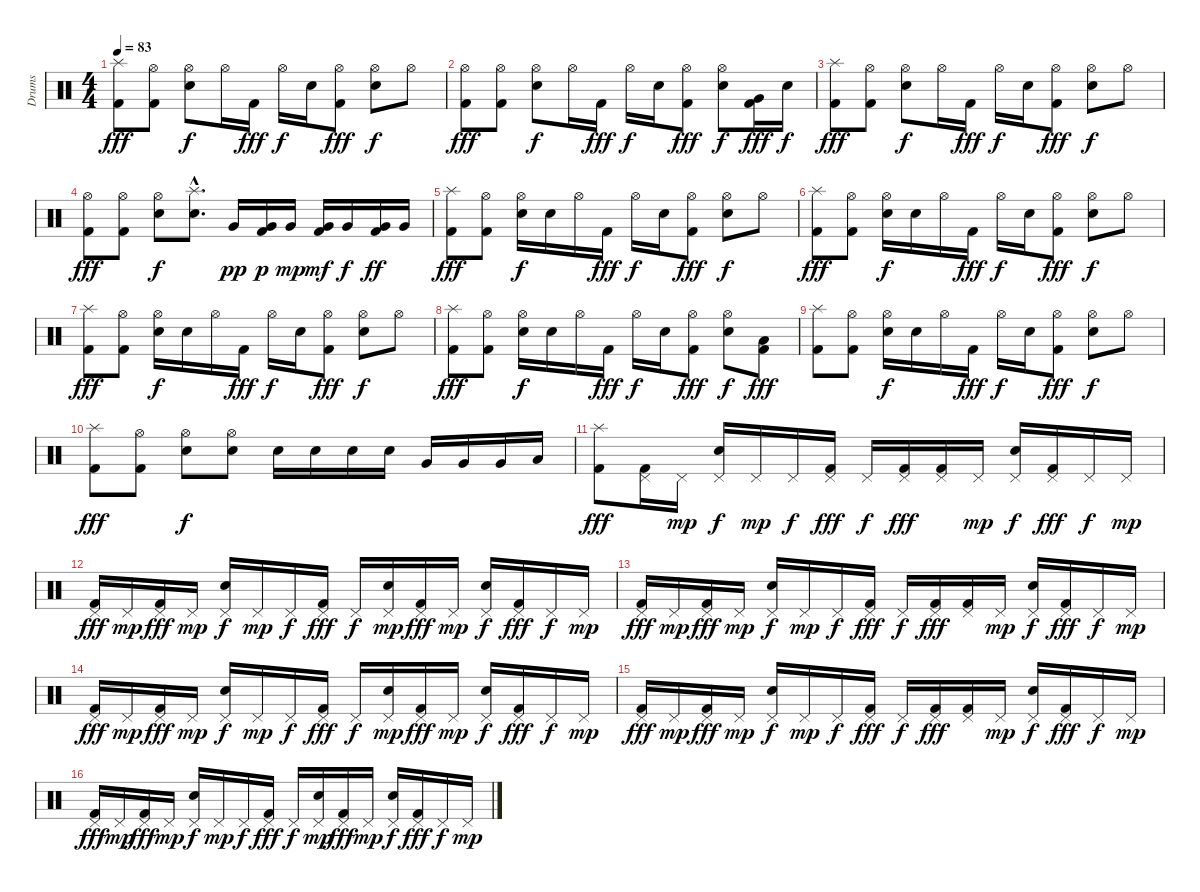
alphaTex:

\track ("Drums" "Drums") {instrument percussion}
\staff {score}
\articulation defaults
\ts (4 4)
\tempo 83
\clef neutral
\ks c
("Splash (hit)" "Kick (hit) 2").8{dy fff} ("Hi-Hat (open)" "Kick (hit) 2").8 ("Hi-Hat (open)" "Snare (hit) 2").8{dy f} "Hi-Hat (open)".16 "Kick (hit) 2".16{dy fff} "Hi-Hat (open)".16{dy f} "Snare (hit) 2".16 ("Hi-Hat (open)" "Kick (hit) 2").8{dy fff} ("Hi-Hat (open)" "Snare (hit) 2").8{dy f} "Hi-Hat (open)".8 |
("Hi-Hat (open)" "Kick (hit) 2").8{dy fff} ("Hi-Hat (open)" "Kick (hit) 2").8 ("Hi-Hat (open)" "Snare (hit) 2").8{dy f} "Hi-Hat (open)".16 "Kick (hit) 2".16{dy fff} "Hi-Hat (open)".16{dy f} "Snare (hit) 2".16 ("Hi-Hat (open)" "Kick (hit) 2").8{dy fff} ("Hi-Hat (open)" "Snare (hit) 2").8{dy f} ("Very Low Tom (hit)" "Kick (hit) 2").16{dy fff} "Snare (hit) 2".16{dy f} |
("Splash (hit)" "Kick (hit) 2").8{dy fff} ("Hi-Hat (open)" "Kick (hit) 2").8 ("Hi-Hat (open)" "Snare (hit) 2").8{dy f} "Hi-Hat (open)".16 "Kick (hit) 2".16{dy fff} "Hi-Hat (open)".16{dy f} "Snare (hit) 2".16 ("Hi-Hat (open)" "Kick (hit) 2").8{dy fff} ("Hi-Hat (open)" "Snare (hit) 2").8{dy f} "Hi-Hat (open)".8 |
("Hi-Hat (open)" "Kick (hit) 2").8{dy fff} ("Hi-Hat (open)" "Kick (hit) 2").8 ("Hi-Hat (open)" "Snare (hit) 2").8{dy f} ("Splash (hit)"{hac} "Snare (hit) 2"{hac}).8{d} "Very Low Tom (hit)".16{dy pp} ("Very Low Tom (hit)" "Kick (hit) 2").16{dy p} "Very Low Tom (hit)".16{dy mp} ("Very Low Tom (hit)" "Kick (hit) 2").16{dy mf} "Very Low Tom (hit)".16{dy f} ("Very Low Tom (hit)" "Kick (hit) 2").16{dy ff} "Very Low Tom (hit)".16 |
("Splash (hit)" "Kick (hit) 2").8{dy fff} ("Hi-Hat (open)" "Kick (hit) 2").8 ("Hi-Hat (open)" "Snare (hit) 2").16{dy f} "Snare (hit) 2".16 "Hi-Hat (open)".16 "Kick (hit) 2".16{dy fff} "Hi-Hat (open)".16{dy f} "Snare (hit) 2".16 ("Hi-Hat (open)" "Kick (hit) 2").8{dy fff} ("Hi-Hat (open)" "Snare (hit) 2").8{dy f} "Hi-Hat (open)".8 |
("Splash (hit)" "Kick (hit) 2").8{dy fff} ("Hi-Hat (open)" "Kick (hit) 2").8 ("Hi-Hat (open)" "Snare (hit) 2").16{dy f} "Snare (hit) 2".16 "Hi-Hat (open)".16 "Kick (hit) 2".16{dy fff} "Hi-Hat (open)".16{dy f} "Snare (hit) 2".16 ("Hi-Hat (open)" "Kick (hit) 2").8{dy fff} ("Hi-Hat (open)" "Snare (hit) 2").8{dy f} "Hi-Hat (open)".8 |
("Splash (hit)" "Kick (hit) 2").8{dy fff} ("Hi-Hat (open)" "Kick (hit) 2").8 ("Hi-Hat (open)" "Snare (hit) 2").16{dy f} "Snare (hit) 2".16 "Hi-Hat (open)".16 "Kick (hit) 2".16{dy fff} "Hi-Hat (open)".16{dy f} "Snare (hit) 2".16 ("Hi-Hat (open)" "Kick (hit) 2").8{dy fff} ("Hi-Hat (open)" "Snare (hit) 2").8{dy f} "Hi-Hat (open)".8 |
("Splash (hit)" "Kick (hit) 2").8{dy fff} ("Hi-Hat (open)" "Kick (hit) 2").8 ("Hi-Hat (open)" "Snare (hit) 2").16{dy f} "Snare (hit) 2".16 "Hi-Hat (open)".16 "Kick (hit) 2".16{dy fff} "Hi-Hat (open)".16{dy f} "Snare (hit) 2".16 ("Hi-Hat (open)" "Kick (hit) 2").8{dy fff} ("Hi-Hat (open)" "Snare (hit) 2").8{dy f} ("Low Floor Tom (hit)" "Kick (hit) 2").8{dy fff} |
("Splash (hit)" "Kick (hit) 2").8 ("Hi-Hat (open)" "Kick (hit) 2").8 ("Hi-Hat (open)" "Snare (hit) 2").16{dy f} "Snare (hit) 2".16 "Hi-Hat (open)".16 "Kick (hit) 2".16{dy fff} "Hi-Hat (open)".16{dy f} "Snare (hit) 2".16 ("Hi-Hat (open)" "Kick (hit) 2").8{dy fff} ("Hi-Hat (open)" "Snare (hit) 2").8{dy f} "Hi-Hat (open)".8 |
("Splash (hit)" "Kick (hit) 2").8{dy fff} ("Hi-Hat (open)" "Kick (hit) 2").8 ("Hi-Hat (open)" "Snare (hit) 2").8{dy f} ("Hi-Hat (open)" "Snare (hit) 2").8 "Snare (hit) 2".16 "Snare (hit) 2".16 "Snare (hit) 2".16 "Snare (hit) 2".16 "Very Low Tom (hit)".16 "Very Low Tom (hit)".16 "Very Low Tom (hit)".16 "Low Floor Tom (hit)".16 |
("Splash (hit)" "Kick (hit) 2").8{dy fff} ("Pedal Hi-Hat (hit)" "Kick (hit) 2").16 "Pedal Hi-Hat (hit)".16{dy mp} ("Pedal Hi-Hat (hit)" "Snare (hit) 2").16{dy f} "Pedal Hi-Hat (hit)".16{dy mp} "Pedal Hi-Hat (hit)".16{dy f} ("Pedal Hi-Hat (hit)" "Kick (hit) 2").16{dy fff} "Pedal Hi-Hat (hit)".16{dy f} ("Pedal Hi-Hat (hit)" "Kick (hit) 2").16{dy fff} ("Pedal Hi-Hat (hit)" "Kick (hit) 2").16 "Pedal Hi-Hat (hit)".16{dy mp} ("Pedal Hi-Hat (hit)" "Snare (hit) 2").16{dy f} ("Pedal Hi-Hat (hit)" "Kick (hit) 2").16{dy fff} "Pedal Hi-Hat (hit)".16{dy f} "Pedal Hi-Hat (hit)".16{dy mp} |
("Pedal Hi-Hat (hit)" "Kick (hit) 2").16{dy fff} "Pedal Hi-Hat (hit)".16{dy mp} ("Pedal Hi-Hat (hit)" "Kick (hit) 2").16{dy fff} "Pedal Hi-Hat (hit)".16{dy mp} ("Pedal Hi-Hat (hit)" "Snare (hit) 2").16{dy f} "Pedal Hi-Hat (hit)".16{dy mp} "Pedal Hi-Hat (hit)".16{dy f} ("Pedal Hi-Hat (hit)" "Kick (hit) 2").16{dy fff} "Pedal Hi-Hat (hit)".16{dy f} ("Pedal Hi-Hat (hit)" "Snare (hit) 2").16{dy mp} ("Pedal Hi-Hat (hit)" "Kick (hit) 2").16{dy fff} "Pedal Hi-Hat (hit)".16{dy mp} ("Pedal Hi-Hat (hit)" "Snare (hit) 2").16{dy f} ("Pedal Hi-Hat (hit)" "Kick (hit) 2").16{dy fff} "Pedal Hi-Hat (hit)".16{dy f} "Pedal Hi-Hat (hit)".16{dy mp} |
("Pedal Hi-Hat (hit)" "Kick (hit) 2").16{dy fff} "Pedal Hi-Hat (hit)".16{dy mp} ("Pedal Hi-Hat (hit)" "Kick (hit) 2").16{dy fff} "Pedal Hi-Hat (hit)".16{dy mp} ("Pedal Hi-Hat (hit)" "Snare (hit) 2").16{dy f} "Pedal Hi-Hat (hit)".16{dy mp} "Pedal Hi-Hat (hit)".16{dy f} ("Pedal Hi-Hat (hit)" "Kick (hit) 2").16{dy fff} "Pedal Hi-Hat (hit)".16{dy f} ("Pedal Hi-Hat (hit)" "Kick (hit) 2").16{dy fff} ("Pedal Hi-Hat (hit)" "Kick (hit) 2").16 "Pedal Hi-Hat (hit)".16{dy mp} ("Pedal Hi-Hat (hit)" "Snare (hit) 2").16{dy f} ("Pedal Hi-Hat (hit)" "Kick (hit) 2").16{dy fff} "Pedal Hi-Hat (hit)".16{dy f} "Pedal Hi-Hat (hit)".16{dy mp} |
("Pedal Hi-Hat (hit)" "Kick (hit) 2").16{dy fff} "Pedal Hi-Hat (hit)".16{dy mp} ("Pedal Hi-Hat (hit)" "Kick (hit) 2").16{dy fff} "Pedal Hi-Hat (hit)".16{dy mp} ("Pedal Hi-Hat (hit)" "Snare (hit) 2").16{dy f} "Pedal Hi-Hat (hit)".16{dy mp} "Pedal Hi-Hat (hit)".16{dy f} ("Pedal Hi-Hat (hit)" "Kick (hit) 2").16{dy fff} "Pedal Hi-Hat (hit)".16{dy f} ("Pedal Hi-Hat (hit)" "Snare (hit) 2").16{dy mp} ("Pedal Hi-Hat (hit)" "Kick (hit) 2").16{dy fff} "Pedal Hi-Hat (hit)".16{dy mp} ("Pedal Hi-Hat (hit)" "Snare (hit) 2").16{dy f} ("Pedal Hi-Hat (hit)" "Kick (hit) 2").16{dy fff} "Pedal Hi-Hat (hit)".16{dy f} "Pedal Hi-Hat (hit)".16{dy mp} |
("Pedal Hi-Hat (hit)" "Kick (hit) 2").16{dy fff} "Pedal Hi-Hat (hit)".16{dy mp} ("Pedal Hi-Hat (hit)" "Kick (hit) 2").16{dy fff} "Pedal Hi-Hat (hit)".16{dy mp} ("Pedal Hi-Hat (hit)" "Snare (hit) 2").16{dy f} "Pedal Hi-Hat (hit)".16{dy mp} "Pedal Hi-Hat (hit)".16{dy f} ("Pedal Hi-Hat (hit)" "Kick (hit) 2").16{dy fff} "Pedal Hi-Hat (hit)".16{dy f} ("Pedal Hi-Hat (hit)" "Kick (hit) 2").16{dy fff} ("Pedal Hi-Hat (hit)" "Kick (hit) 2").16 "Pedal Hi-Hat (hit)".16{dy mp} ("Pedal Hi-Hat (hit)" "Snare (hit) 2").16{dy f} ("Pedal Hi-Hat (hit)" "Kick (hit) 2").16{dy fff} "Pedal Hi-Hat (hit)".16{dy f} "Pedal Hi-Hat (hit)".16{dy mp} |
("Pedal Hi-Hat (hit)" "Kick (hit) 2").16{dy fff} "Pedal Hi-Hat (hit)".16{dy mp} ("Pedal Hi-Hat (hit)" "Kick (hit) 2").16{dy fff} "Pedal Hi-Hat (hit)".16{dy mp} ("Pedal Hi-Hat (hit)" "Snare (hit) 2").16{dy f} "Pedal Hi-Hat (hit)".16{dy mp} "Pedal Hi-Hat (hit)".16{dy f} ("Pedal Hi-Hat (hit)" "Kick (hit) 2").16{dy fff} "Pedal Hi-Hat (hit)".16{dy f} ("Pedal Hi-Hat (hit)" "Snare (hit) 2").16{dy mp} ("Pedal Hi-Hat (hit)" "Kick (hit) 2").16{dy fff} "Pedal Hi-Hat (hit)".16{dy mp} ("Pedal Hi-Hat (hit)" "Snare (hit) 2").16{dy f} ("Pedal Hi-Hat (hit)" "Kick (hit) 2").16{dy fff} "Pedal Hi-Hat (hit)".16{dy f} "Pedal Hi-Hat (hit)".16{dy mp}
